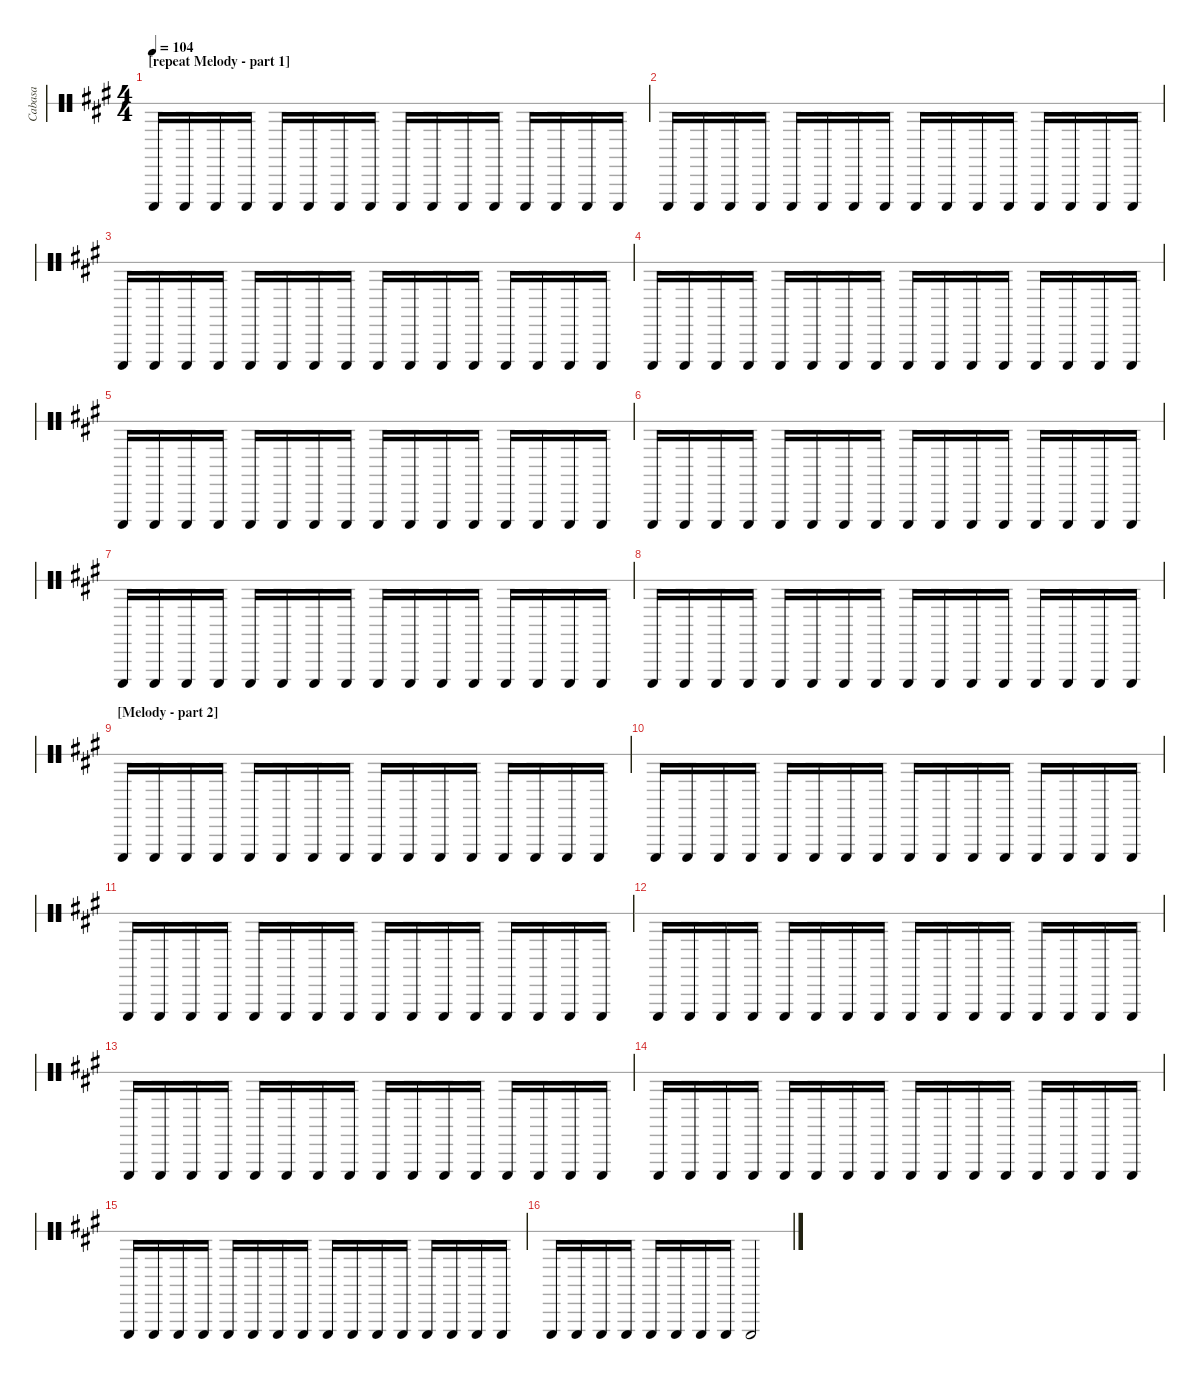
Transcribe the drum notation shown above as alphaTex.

\hideDynamics
\bracketExtendMode nobrackets
\otherSystemsTrackNameOrientation horizontal
\track ("Cabasa" "Cabasa") {instrument percussion}
\staff {score 1}
\articulation defaults
\ts (4 4)
\section ("" "[repeat Melody - part 1]")
\tempo 104
\clef neutral
\ks a "Cabasa (hit)"{acc forcenatural}.16{dy f beam Up} "Cabasa (hit)"{acc forcenatural}.16{beam Up} "Cabasa (hit)"{acc forcenatural}.16{beam Up} "Cabasa (hit)"{acc forcenatural}.16{beam Up} "Cabasa (hit)"{acc forcenatural}.16{beam Up} "Cabasa (hit)"{acc forcenatural}.16{beam Up} "Cabasa (hit)"{acc forcenatural}.16{beam Up} "Cabasa (hit)"{acc forcenatural}.16{beam Up} "Cabasa (hit)"{acc forcenatural}.16{beam Up} "Cabasa (hit)"{acc forcenatural}.16{beam Up} "Cabasa (hit)"{acc forcenatural}.16{beam Up} "Cabasa (hit)"{acc forcenatural}.16{beam Up} "Cabasa (hit)"{acc forcenatural}.16{beam Up} "Cabasa (hit)"{acc forcenatural}.16{beam Up} "Cabasa (hit)"{acc forcenatural}.16{beam Up} "Cabasa (hit)"{acc forcenatural}.16{beam Up}
|
"Cabasa (hit)"{acc forcenatural}.16{beam Up} "Cabasa (hit)"{acc forcenatural}.16{beam Up} "Cabasa (hit)"{acc forcenatural}.16{beam Up} "Cabasa (hit)"{acc forcenatural}.16{beam Up} "Cabasa (hit)"{acc forcenatural}.16{beam Up} "Cabasa (hit)"{acc forcenatural}.16{beam Up} "Cabasa (hit)"{acc forcenatural}.16{beam Up} "Cabasa (hit)"{acc forcenatural}.16{beam Up} "Cabasa (hit)"{acc forcenatural}.16{beam Up} "Cabasa (hit)"{acc forcenatural}.16{beam Up} "Cabasa (hit)"{acc forcenatural}.16{beam Up} "Cabasa (hit)"{acc forcenatural}.16{beam Up} "Cabasa (hit)"{acc forcenatural}.16{beam Up} "Cabasa (hit)"{acc forcenatural}.16{beam Up} "Cabasa (hit)"{acc forcenatural}.16{beam Up} "Cabasa (hit)"{acc forcenatural}.16{beam Up} |
"Cabasa (hit)"{acc forcenatural}.16{beam Up} "Cabasa (hit)"{acc forcenatural}.16{beam Up} "Cabasa (hit)"{acc forcenatural}.16{beam Up} "Cabasa (hit)"{acc forcenatural}.16{beam Up} "Cabasa (hit)"{acc forcenatural}.16{beam Up} "Cabasa (hit)"{acc forcenatural}.16{beam Up} "Cabasa (hit)"{acc forcenatural}.16{beam Up} "Cabasa (hit)"{acc forcenatural}.16{beam Up} "Cabasa (hit)"{acc forcenatural}.16{beam Up} "Cabasa (hit)"{acc forcenatural}.16{beam Up} "Cabasa (hit)"{acc forcenatural}.16{beam Up} "Cabasa (hit)"{acc forcenatural}.16{beam Up} "Cabasa (hit)"{acc forcenatural}.16{beam Up} "Cabasa (hit)"{acc forcenatural}.16{beam Up} "Cabasa (hit)"{acc forcenatural}.16{beam Up} "Cabasa (hit)"{acc forcenatural}.16{beam Up} |
"Cabasa (hit)"{acc forcenatural}.16{beam Up} "Cabasa (hit)"{acc forcenatural}.16{beam Up} "Cabasa (hit)"{acc forcenatural}.16{beam Up} "Cabasa (hit)"{acc forcenatural}.16{beam Up} "Cabasa (hit)"{acc forcenatural}.16{beam Up} "Cabasa (hit)"{acc forcenatural}.16{beam Up} "Cabasa (hit)"{acc forcenatural}.16{beam Up} "Cabasa (hit)"{acc forcenatural}.16{beam Up} "Cabasa (hit)"{acc forcenatural}.16{beam Up} "Cabasa (hit)"{acc forcenatural}.16{beam Up} "Cabasa (hit)"{acc forcenatural}.16{beam Up} "Cabasa (hit)"{acc forcenatural}.16{beam Up} "Cabasa (hit)"{acc forcenatural}.16{beam Up} "Cabasa (hit)"{acc forcenatural}.16{beam Up} "Cabasa (hit)"{acc forcenatural}.16{beam Up} "Cabasa (hit)"{acc forcenatural}.16{beam Up} |
"Cabasa (hit)"{acc forcenatural}.16{beam Up} "Cabasa (hit)"{acc forcenatural}.16{beam Up} "Cabasa (hit)"{acc forcenatural}.16{beam Up} "Cabasa (hit)"{acc forcenatural}.16{beam Up} "Cabasa (hit)"{acc forcenatural}.16{beam Up} "Cabasa (hit)"{acc forcenatural}.16{beam Up} "Cabasa (hit)"{acc forcenatural}.16{beam Up} "Cabasa (hit)"{acc forcenatural}.16{beam Up} "Cabasa (hit)"{acc forcenatural}.16{beam Up} "Cabasa (hit)"{acc forcenatural}.16{beam Up} "Cabasa (hit)"{acc forcenatural}.16{beam Up} "Cabasa (hit)"{acc forcenatural}.16{beam Up} "Cabasa (hit)"{acc forcenatural}.16{beam Up} "Cabasa (hit)"{acc forcenatural}.16{beam Up} "Cabasa (hit)"{acc forcenatural}.16{beam Up} "Cabasa (hit)"{acc forcenatural}.16{beam Up} |
"Cabasa (hit)"{acc forcenatural}.16{beam Up} "Cabasa (hit)"{acc forcenatural}.16{beam Up} "Cabasa (hit)"{acc forcenatural}.16{beam Up} "Cabasa (hit)"{acc forcenatural}.16{beam Up} "Cabasa (hit)"{acc forcenatural}.16{beam Up} "Cabasa (hit)"{acc forcenatural}.16{beam Up} "Cabasa (hit)"{acc forcenatural}.16{beam Up} "Cabasa (hit)"{acc forcenatural}.16{beam Up} "Cabasa (hit)"{acc forcenatural}.16{beam Up} "Cabasa (hit)"{acc forcenatural}.16{beam Up} "Cabasa (hit)"{acc forcenatural}.16{beam Up} "Cabasa (hit)"{acc forcenatural}.16{beam Up} "Cabasa (hit)"{acc forcenatural}.16{beam Up} "Cabasa (hit)"{acc forcenatural}.16{beam Up} "Cabasa (hit)"{acc forcenatural}.16{beam Up} "Cabasa (hit)"{acc forcenatural}.16{beam Up} |
"Cabasa (hit)"{acc forcenatural}.16{beam Up} "Cabasa (hit)"{acc forcenatural}.16{beam Up} "Cabasa (hit)"{acc forcenatural}.16{beam Up} "Cabasa (hit)"{acc forcenatural}.16{beam Up} "Cabasa (hit)"{acc forcenatural}.16{beam Up} "Cabasa (hit)"{acc forcenatural}.16{beam Up} "Cabasa (hit)"{acc forcenatural}.16{beam Up} "Cabasa (hit)"{acc forcenatural}.16{beam Up} "Cabasa (hit)"{acc forcenatural}.16{beam Up} "Cabasa (hit)"{acc forcenatural}.16{beam Up} "Cabasa (hit)"{acc forcenatural}.16{beam Up} "Cabasa (hit)"{acc forcenatural}.16{beam Up} "Cabasa (hit)"{acc forcenatural}.16{beam Up} "Cabasa (hit)"{acc forcenatural}.16{beam Up} "Cabasa (hit)"{acc forcenatural}.16{beam Up} "Cabasa (hit)"{acc forcenatural}.16{beam Up} |
"Cabasa (hit)"{acc forcenatural}.16{beam Up} "Cabasa (hit)"{acc forcenatural}.16{beam Up} "Cabasa (hit)"{acc forcenatural}.16{beam Up} "Cabasa (hit)"{acc forcenatural}.16{beam Up} "Cabasa (hit)"{acc forcenatural}.16{beam Up} "Cabasa (hit)"{acc forcenatural}.16{beam Up} "Cabasa (hit)"{acc forcenatural}.16{beam Up} "Cabasa (hit)"{acc forcenatural}.16{beam Up} "Cabasa (hit)"{acc forcenatural}.16{beam Up} "Cabasa (hit)"{acc forcenatural}.16{beam Up} "Cabasa (hit)"{acc forcenatural}.16{beam Up} "Cabasa (hit)"{acc forcenatural}.16{beam Up} "Cabasa (hit)"{acc forcenatural}.16{beam Up} "Cabasa (hit)"{acc forcenatural}.16{beam Up} "Cabasa (hit)"{acc forcenatural}.16{beam Up} "Cabasa (hit)"{acc forcenatural}.16{beam Up} |
\section ("" "[Melody - part 2]")
"Cabasa (hit)"{acc forcenatural}.16{beam Up} "Cabasa (hit)"{acc forcenatural}.16{beam Up} "Cabasa (hit)"{acc forcenatural}.16{beam Up} "Cabasa (hit)"{acc forcenatural}.16{beam Up} "Cabasa (hit)"{acc forcenatural}.16{beam Up} "Cabasa (hit)"{acc forcenatural}.16{beam Up} "Cabasa (hit)"{acc forcenatural}.16{beam Up} "Cabasa (hit)"{acc forcenatural}.16{beam Up} "Cabasa (hit)"{acc forcenatural}.16{beam Up} "Cabasa (hit)"{acc forcenatural}.16{beam Up} "Cabasa (hit)"{acc forcenatural}.16{beam Up} "Cabasa (hit)"{acc forcenatural}.16{beam Up} "Cabasa (hit)"{acc forcenatural}.16{beam Up} "Cabasa (hit)"{acc forcenatural}.16{beam Up} "Cabasa (hit)"{acc forcenatural}.16{beam Up} "Cabasa (hit)"{acc forcenatural}.16{beam Up} |
"Cabasa (hit)"{acc forcenatural}.16{beam Up} "Cabasa (hit)"{acc forcenatural}.16{beam Up} "Cabasa (hit)"{acc forcenatural}.16{beam Up} "Cabasa (hit)"{acc forcenatural}.16{beam Up} "Cabasa (hit)"{acc forcenatural}.16{beam Up} "Cabasa (hit)"{acc forcenatural}.16{beam Up} "Cabasa (hit)"{acc forcenatural}.16{beam Up} "Cabasa (hit)"{acc forcenatural}.16{beam Up} "Cabasa (hit)"{acc forcenatural}.16{beam Up} "Cabasa (hit)"{acc forcenatural}.16{beam Up} "Cabasa (hit)"{acc forcenatural}.16{beam Up} "Cabasa (hit)"{acc forcenatural}.16{beam Up} "Cabasa (hit)"{acc forcenatural}.16{beam Up} "Cabasa (hit)"{acc forcenatural}.16{beam Up} "Cabasa (hit)"{acc forcenatural}.16{beam Up} "Cabasa (hit)"{acc forcenatural}.16{beam Up} |
"Cabasa (hit)"{acc forcenatural}.16{beam Up} "Cabasa (hit)"{acc forcenatural}.16{beam Up} "Cabasa (hit)"{acc forcenatural}.16{beam Up} "Cabasa (hit)"{acc forcenatural}.16{beam Up} "Cabasa (hit)"{acc forcenatural}.16{beam Up} "Cabasa (hit)"{acc forcenatural}.16{beam Up} "Cabasa (hit)"{acc forcenatural}.16{beam Up} "Cabasa (hit)"{acc forcenatural}.16{beam Up} "Cabasa (hit)"{acc forcenatural}.16{beam Up} "Cabasa (hit)"{acc forcenatural}.16{beam Up} "Cabasa (hit)"{acc forcenatural}.16{beam Up} "Cabasa (hit)"{acc forcenatural}.16{beam Up} "Cabasa (hit)"{acc forcenatural}.16{beam Up} "Cabasa (hit)"{acc forcenatural}.16{beam Up} "Cabasa (hit)"{acc forcenatural}.16{beam Up} "Cabasa (hit)"{acc forcenatural}.16{beam Up} |
"Cabasa (hit)"{acc forcenatural}.16{beam Up} "Cabasa (hit)"{acc forcenatural}.16{beam Up} "Cabasa (hit)"{acc forcenatural}.16{beam Up} "Cabasa (hit)"{acc forcenatural}.16{beam Up} "Cabasa (hit)"{acc forcenatural}.16{beam Up} "Cabasa (hit)"{acc forcenatural}.16{beam Up} "Cabasa (hit)"{acc forcenatural}.16{beam Up} "Cabasa (hit)"{acc forcenatural}.16{beam Up} "Cabasa (hit)"{acc forcenatural}.16{beam Up} "Cabasa (hit)"{acc forcenatural}.16{beam Up} "Cabasa (hit)"{acc forcenatural}.16{beam Up} "Cabasa (hit)"{acc forcenatural}.16{beam Up} "Cabasa (hit)"{acc forcenatural}.16{beam Up} "Cabasa (hit)"{acc forcenatural}.16{beam Up} "Cabasa (hit)"{acc forcenatural}.16{beam Up} "Cabasa (hit)"{acc forcenatural}.16{beam Up} |
"Cabasa (hit)"{acc forcenatural}.16{beam Up} "Cabasa (hit)"{acc forcenatural}.16{beam Up} "Cabasa (hit)"{acc forcenatural}.16{beam Up} "Cabasa (hit)"{acc forcenatural}.16{beam Up} "Cabasa (hit)"{acc forcenatural}.16{beam Up} "Cabasa (hit)"{acc forcenatural}.16{beam Up} "Cabasa (hit)"{acc forcenatural}.16{beam Up} "Cabasa (hit)"{acc forcenatural}.16{beam Up} "Cabasa (hit)"{acc forcenatural}.16{beam Up} "Cabasa (hit)"{acc forcenatural}.16{beam Up} "Cabasa (hit)"{acc forcenatural}.16{beam Up} "Cabasa (hit)"{acc forcenatural}.16{beam Up} "Cabasa (hit)"{acc forcenatural}.16{beam Up} "Cabasa (hit)"{acc forcenatural}.16{beam Up} "Cabasa (hit)"{acc forcenatural}.16{beam Up} "Cabasa (hit)"{acc forcenatural}.16{beam Up} |
"Cabasa (hit)"{acc forcenatural}.16{beam Up} "Cabasa (hit)"{acc forcenatural}.16{beam Up} "Cabasa (hit)"{acc forcenatural}.16{beam Up} "Cabasa (hit)"{acc forcenatural}.16{beam Up} "Cabasa (hit)"{acc forcenatural}.16{beam Up} "Cabasa (hit)"{acc forcenatural}.16{beam Up} "Cabasa (hit)"{acc forcenatural}.16{beam Up} "Cabasa (hit)"{acc forcenatural}.16{beam Up} "Cabasa (hit)"{acc forcenatural}.16{beam Up} "Cabasa (hit)"{acc forcenatural}.16{beam Up} "Cabasa (hit)"{acc forcenatural}.16{beam Up} "Cabasa (hit)"{acc forcenatural}.16{beam Up} "Cabasa (hit)"{acc forcenatural}.16{beam Up} "Cabasa (hit)"{acc forcenatural}.16{beam Up} "Cabasa (hit)"{acc forcenatural}.16{beam Up} "Cabasa (hit)"{acc forcenatural}.16{beam Up} |
"Cabasa (hit)"{acc forcenatural}.16{beam Up} "Cabasa (hit)"{acc forcenatural}.16{beam Up} "Cabasa (hit)"{acc forcenatural}.16{beam Up} "Cabasa (hit)"{acc forcenatural}.16{beam Up} "Cabasa (hit)"{acc forcenatural}.16{beam Up} "Cabasa (hit)"{acc forcenatural}.16{beam Up} "Cabasa (hit)"{acc forcenatural}.16{beam Up} "Cabasa (hit)"{acc forcenatural}.16{beam Up} "Cabasa (hit)"{acc forcenatural}.16{beam Up} "Cabasa (hit)"{acc forcenatural}.16{beam Up} "Cabasa (hit)"{acc forcenatural}.16{beam Up} "Cabasa (hit)"{acc forcenatural}.16{beam Up} "Cabasa (hit)"{acc forcenatural}.16{beam Up} "Cabasa (hit)"{acc forcenatural}.16{beam Up} "Cabasa (hit)"{acc forcenatural}.16{beam Up} "Cabasa (hit)"{acc forcenatural}.16{beam Up} |
"Cabasa (hit)"{acc forcenatural}.16{beam Up} "Cabasa (hit)"{acc forcenatural}.16{beam Up} "Cabasa (hit)"{acc forcenatural}.16{beam Up} "Cabasa (hit)"{acc forcenatural}.16{beam Up} "Cabasa (hit)"{acc forcenatural}.16{beam Up} "Cabasa (hit)"{acc forcenatural}.16{beam Up} "Cabasa (hit)"{acc forcenatural}.16{beam Up} "Cabasa (hit)"{acc forcenatural}.16{beam Up} "Cabasa (hit)"{acc forcenatural}.2{beam Up}
